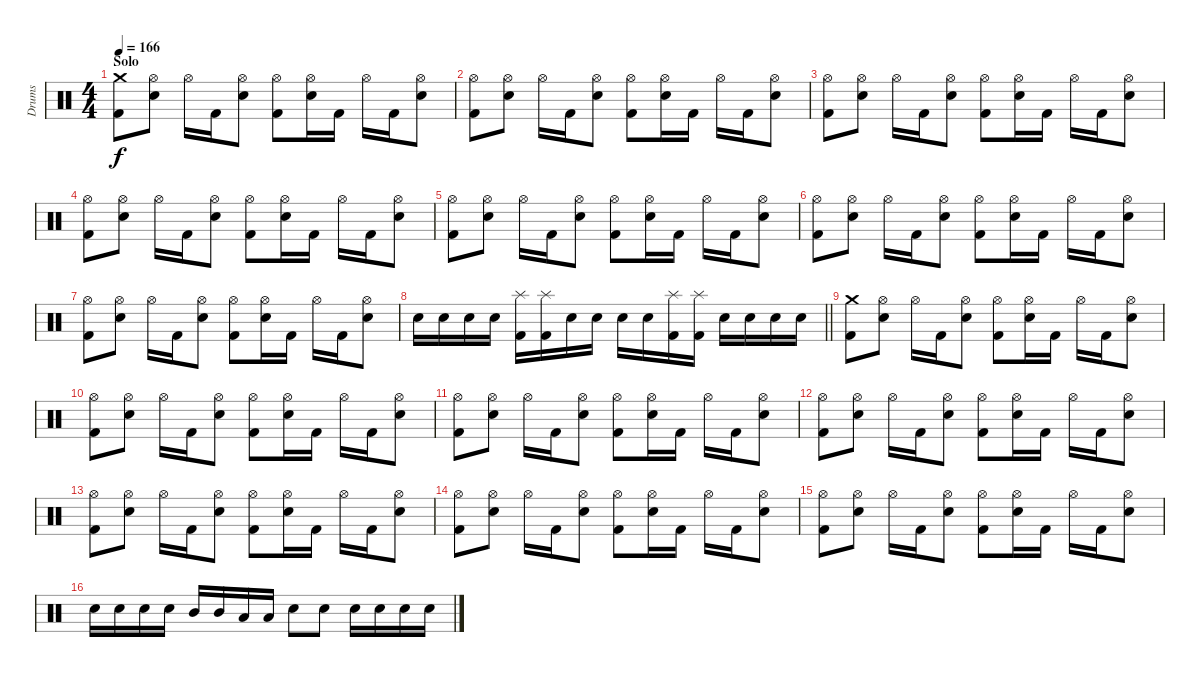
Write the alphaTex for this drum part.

\track ("Drums" "Drums") {instrument percussion}
\staff {score}
\articulation defaults
\ts (4 4)
\section ("" "Solo")
\tempo 166
\clef neutral
\ks c
("Kick (hit) 2" "Crash medium (hit)").8{dy f} ("Snare (hit) 2" "Hi-Hat (open)").8 "Hi-Hat (open)".16 "Kick (hit) 2".16 ("Snare (hit) 2" "Hi-Hat (open)").8 ("Kick (hit) 2" "Hi-Hat (open)").8 ("Snare (hit) 2" "Hi-Hat (open)").16 "Kick (hit) 2".16 "Hi-Hat (open)".16 "Kick (hit) 2".16 ("Snare (hit) 2" "Hi-Hat (open)").8 |
("Kick (hit) 2" "Hi-Hat (open)").8 ("Snare (hit) 2" "Hi-Hat (open)").8 "Hi-Hat (open)".16 "Kick (hit) 2".16 ("Snare (hit) 2" "Hi-Hat (open)").8 ("Kick (hit) 2" "Hi-Hat (open)").8 ("Snare (hit) 2" "Hi-Hat (open)").16 "Kick (hit) 2".16 "Hi-Hat (open)".16 "Kick (hit) 2".16 ("Snare (hit) 2" "Hi-Hat (open)").8 |
("Kick (hit) 2" "Hi-Hat (open)").8 ("Snare (hit) 2" "Hi-Hat (open)").8 "Hi-Hat (open)".16 "Kick (hit) 2".16 ("Snare (hit) 2" "Hi-Hat (open)").8 ("Kick (hit) 2" "Hi-Hat (open)").8 ("Snare (hit) 2" "Hi-Hat (open)").16 "Kick (hit) 2".16 "Hi-Hat (open)".16 "Kick (hit) 2".16 ("Snare (hit) 2" "Hi-Hat (open)").8 |
("Kick (hit) 2" "Hi-Hat (open)").8 ("Snare (hit) 2" "Hi-Hat (open)").8 "Hi-Hat (open)".16 "Kick (hit) 2".16 ("Snare (hit) 2" "Hi-Hat (open)").8 ("Kick (hit) 2" "Hi-Hat (open)").8 ("Snare (hit) 2" "Hi-Hat (open)").16 "Kick (hit) 2".16 "Hi-Hat (open)".16 "Kick (hit) 2".16 ("Snare (hit) 2" "Hi-Hat (open)").8 |
("Kick (hit) 2" "Hi-Hat (open)").8 ("Snare (hit) 2" "Hi-Hat (open)").8 "Hi-Hat (open)".16 "Kick (hit) 2".16 ("Snare (hit) 2" "Hi-Hat (open)").8 ("Kick (hit) 2" "Hi-Hat (open)").8 ("Snare (hit) 2" "Hi-Hat (open)").16 "Kick (hit) 2".16 "Hi-Hat (open)".16 "Kick (hit) 2".16 ("Snare (hit) 2" "Hi-Hat (open)").8 |
("Kick (hit) 2" "Hi-Hat (open)").8 ("Snare (hit) 2" "Hi-Hat (open)").8 "Hi-Hat (open)".16 "Kick (hit) 2".16 ("Snare (hit) 2" "Hi-Hat (open)").8 ("Kick (hit) 2" "Hi-Hat (open)").8 ("Snare (hit) 2" "Hi-Hat (open)").16 "Kick (hit) 2".16 "Hi-Hat (open)".16 "Kick (hit) 2".16 ("Snare (hit) 2" "Hi-Hat (open)").8 |
("Kick (hit) 2" "Hi-Hat (open)").8 ("Snare (hit) 2" "Hi-Hat (open)").8 "Hi-Hat (open)".16 "Kick (hit) 2".16 ("Snare (hit) 2" "Hi-Hat (open)").8 ("Kick (hit) 2" "Hi-Hat (open)").8 ("Snare (hit) 2" "Hi-Hat (open)").16 "Kick (hit) 2".16 "Hi-Hat (open)".16 "Kick (hit) 2".16 ("Snare (hit) 2" "Hi-Hat (open)").8 |
\barLineRight lightlight "Snare (hit) 2".16 "Snare (hit) 2".16 "Snare (hit) 2".16 "Snare (hit) 2".16
("Kick (hit) 2" "Splash (hit)").16 ("Kick (hit) 2" "Splash (hit)").16 "Snare (hit) 2".16 "Snare (hit) 2".16 "Snare (hit) 2".16 "Snare (hit) 2".16 ("Kick (hit) 2" "Splash (hit)").16 ("Kick (hit) 2" "Splash (hit)").16 "Snare (hit) 2".16 "Snare (hit) 2".16 "Snare (hit) 2".16 "Snare (hit) 2".16 |
\section ("" "")
("Kick (hit) 2" "Crash medium (hit)").8 ("Snare (hit) 2" "Hi-Hat (open)").8 "Hi-Hat (open)".16 "Kick (hit) 2".16 ("Snare (hit) 2" "Hi-Hat (open)").8 ("Kick (hit) 2" "Hi-Hat (open)").8 ("Snare (hit) 2" "Hi-Hat (open)").16 "Kick (hit) 2".16 "Hi-Hat (open)".16 "Kick (hit) 2".16 ("Snare (hit) 2" "Hi-Hat (open)").8 |
("Kick (hit) 2" "Hi-Hat (open)").8 ("Snare (hit) 2" "Hi-Hat (open)").8 "Hi-Hat (open)".16 "Kick (hit) 2".16 ("Snare (hit) 2" "Hi-Hat (open)").8 ("Kick (hit) 2" "Hi-Hat (open)").8 ("Snare (hit) 2" "Hi-Hat (open)").16 "Kick (hit) 2".16 "Hi-Hat (open)".16 "Kick (hit) 2".16 ("Snare (hit) 2" "Hi-Hat (open)").8 |
("Kick (hit) 2" "Hi-Hat (open)").8 ("Snare (hit) 2" "Hi-Hat (open)").8 "Hi-Hat (open)".16 "Kick (hit) 2".16 ("Snare (hit) 2" "Hi-Hat (open)").8 ("Kick (hit) 2" "Hi-Hat (open)").8 ("Snare (hit) 2" "Hi-Hat (open)").16 "Kick (hit) 2".16 "Hi-Hat (open)".16 "Kick (hit) 2".16 ("Snare (hit) 2" "Hi-Hat (open)").8 |
("Kick (hit) 2" "Hi-Hat (open)").8 ("Snare (hit) 2" "Hi-Hat (open)").8 "Hi-Hat (open)".16 "Kick (hit) 2".16 ("Snare (hit) 2" "Hi-Hat (open)").8 ("Kick (hit) 2" "Hi-Hat (open)").8 ("Snare (hit) 2" "Hi-Hat (open)").16 "Kick (hit) 2".16 "Hi-Hat (open)".16 "Kick (hit) 2".16 ("Snare (hit) 2" "Hi-Hat (open)").8 |
("Kick (hit) 2" "Hi-Hat (open)").8 ("Snare (hit) 2" "Hi-Hat (open)").8 "Hi-Hat (open)".16 "Kick (hit) 2".16 ("Snare (hit) 2" "Hi-Hat (open)").8 ("Kick (hit) 2" "Hi-Hat (open)").8 ("Snare (hit) 2" "Hi-Hat (open)").16 "Kick (hit) 2".16 "Hi-Hat (open)".16 "Kick (hit) 2".16 ("Snare (hit) 2" "Hi-Hat (open)").8 |
("Kick (hit) 2" "Hi-Hat (open)").8 ("Snare (hit) 2" "Hi-Hat (open)").8 "Hi-Hat (open)".16 "Kick (hit) 2".16 ("Snare (hit) 2" "Hi-Hat (open)").8 ("Kick (hit) 2" "Hi-Hat (open)").8 ("Snare (hit) 2" "Hi-Hat (open)").16 "Kick (hit) 2".16 "Hi-Hat (open)".16 "Kick (hit) 2".16 ("Snare (hit) 2" "Hi-Hat (open)").8 |
("Kick (hit) 2" "Hi-Hat (open)").8 ("Snare (hit) 2" "Hi-Hat (open)").8 "Hi-Hat (open)".16 "Kick (hit) 2".16 ("Snare (hit) 2" "Hi-Hat (open)").8 ("Kick (hit) 2" "Hi-Hat (open)").8 ("Snare (hit) 2" "Hi-Hat (open)").16 "Kick (hit) 2".16 "Hi-Hat (open)".16 "Kick (hit) 2".16 ("Snare (hit) 2" "Hi-Hat (open)").8 |
"Snare (hit) 2".16 "Snare (hit) 2".16 "Snare (hit) 2".16 "Snare (hit) 2".16 "Mid Tom (hit)".16 "Mid Tom (hit)".16 "Low Tom (hit)".16 "Low Tom (hit)".16 "Snare (hit) 2".8 "Snare (hit) 2".8 "Snare (hit) 2".16 "Snare (hit) 2".16 "Snare (hit) 2".16 "Snare (hit) 2".16
